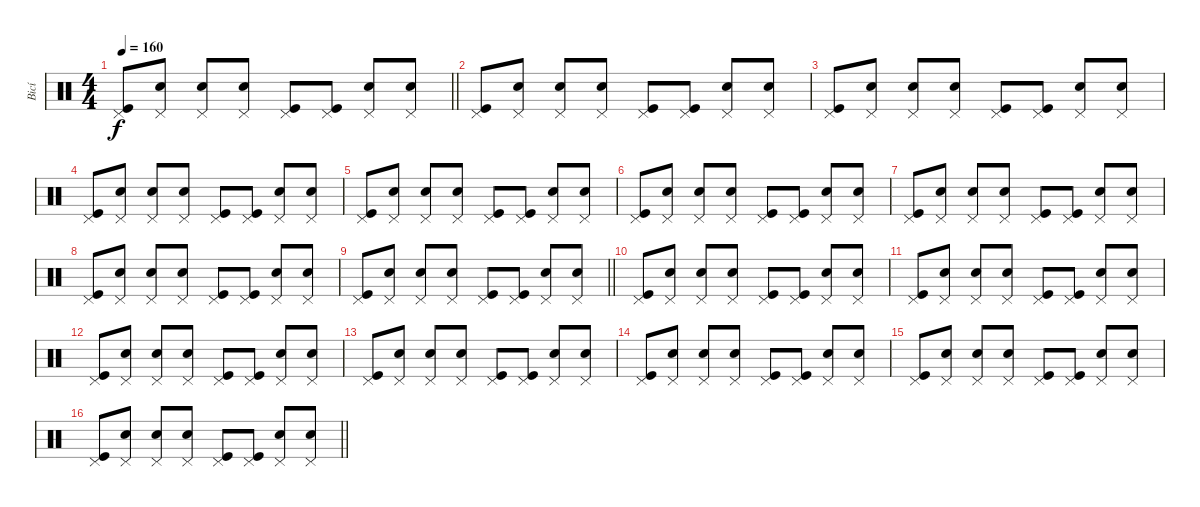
\track ("Bicí" "Bicí") {instrument percussion}
\staff {score}
\articulation defaults
\ts (4 4)
\tempo 160
\clef neutral
\barLineRight lightlight
\ks c
("Pedal Hi-Hat (hit)" "Kick (hit)").8{dy f} ("Pedal Hi-Hat (hit)" "Snare (hit)").8 ("Pedal Hi-Hat (hit)" "Electric Snare (hit)").8 ("Pedal Hi-Hat (hit)" "Snare (hit)").8 ("Pedal Hi-Hat (hit)" "Kick (hit)").8 ("Pedal Hi-Hat (hit)" "Kick (hit)").8 ("Pedal Hi-Hat (hit)" "Electric Snare (hit)").8 ("Pedal Hi-Hat (hit)" "Snare (hit)").8 |
("Pedal Hi-Hat (hit)" "Kick (hit)").8 ("Pedal Hi-Hat (hit)" "Snare (hit)").8 ("Pedal Hi-Hat (hit)" "Electric Snare (hit)").8 ("Pedal Hi-Hat (hit)" "Snare (hit)").8 ("Pedal Hi-Hat (hit)" "Kick (hit)").8 ("Pedal Hi-Hat (hit)" "Kick (hit)").8 ("Pedal Hi-Hat (hit)" "Electric Snare (hit)").8 ("Pedal Hi-Hat (hit)" "Snare (hit)").8 |
("Pedal Hi-Hat (hit)" "Kick (hit)").8 ("Pedal Hi-Hat (hit)" "Snare (hit)").8 ("Pedal Hi-Hat (hit)" "Electric Snare (hit)").8 ("Pedal Hi-Hat (hit)" "Snare (hit)").8 ("Pedal Hi-Hat (hit)" "Kick (hit)").8 ("Pedal Hi-Hat (hit)" "Kick (hit)").8 ("Pedal Hi-Hat (hit)" "Electric Snare (hit)").8 ("Pedal Hi-Hat (hit)" "Snare (hit)").8 |
("Pedal Hi-Hat (hit)" "Kick (hit)").8 ("Pedal Hi-Hat (hit)" "Snare (hit)").8 ("Pedal Hi-Hat (hit)" "Electric Snare (hit)").8 ("Pedal Hi-Hat (hit)" "Snare (hit)").8 ("Pedal Hi-Hat (hit)" "Kick (hit)").8 ("Pedal Hi-Hat (hit)" "Kick (hit)").8 ("Pedal Hi-Hat (hit)" "Electric Snare (hit)").8 ("Pedal Hi-Hat (hit)" "Snare (hit)").8 |
("Pedal Hi-Hat (hit)" "Kick (hit)").8 ("Pedal Hi-Hat (hit)" "Snare (hit)").8 ("Pedal Hi-Hat (hit)" "Electric Snare (hit)").8 ("Pedal Hi-Hat (hit)" "Snare (hit)").8 ("Pedal Hi-Hat (hit)" "Kick (hit)").8 ("Pedal Hi-Hat (hit)" "Kick (hit)").8 ("Pedal Hi-Hat (hit)" "Electric Snare (hit)").8 ("Pedal Hi-Hat (hit)" "Snare (hit)").8 |
("Pedal Hi-Hat (hit)" "Kick (hit)").8 ("Pedal Hi-Hat (hit)" "Snare (hit)").8 ("Pedal Hi-Hat (hit)" "Electric Snare (hit)").8 ("Pedal Hi-Hat (hit)" "Snare (hit)").8 ("Pedal Hi-Hat (hit)" "Kick (hit)").8 ("Pedal Hi-Hat (hit)" "Kick (hit)").8 ("Pedal Hi-Hat (hit)" "Electric Snare (hit)").8 ("Pedal Hi-Hat (hit)" "Snare (hit)").8 |
("Pedal Hi-Hat (hit)" "Kick (hit)").8 ("Pedal Hi-Hat (hit)" "Snare (hit)").8 ("Pedal Hi-Hat (hit)" "Electric Snare (hit)").8 ("Pedal Hi-Hat (hit)" "Snare (hit)").8 ("Pedal Hi-Hat (hit)" "Kick (hit)").8 ("Pedal Hi-Hat (hit)" "Kick (hit)").8 ("Pedal Hi-Hat (hit)" "Electric Snare (hit)").8 ("Pedal Hi-Hat (hit)" "Snare (hit)").8 |
("Pedal Hi-Hat (hit)" "Kick (hit)").8 ("Pedal Hi-Hat (hit)" "Snare (hit)").8 ("Pedal Hi-Hat (hit)" "Electric Snare (hit)").8 ("Pedal Hi-Hat (hit)" "Snare (hit)").8 ("Pedal Hi-Hat (hit)" "Kick (hit)").8 ("Pedal Hi-Hat (hit)" "Kick (hit)").8 ("Pedal Hi-Hat (hit)" "Electric Snare (hit)").8 ("Pedal Hi-Hat (hit)" "Snare (hit)").8 |
\barLineRight lightlight
("Pedal Hi-Hat (hit)" "Kick (hit)").8 ("Pedal Hi-Hat (hit)" "Snare (hit)").8 ("Pedal Hi-Hat (hit)" "Electric Snare (hit)").8 ("Pedal Hi-Hat (hit)" "Snare (hit)").8 ("Pedal Hi-Hat (hit)" "Kick (hit)").8 ("Pedal Hi-Hat (hit)" "Kick (hit)").8 ("Pedal Hi-Hat (hit)" "Electric Snare (hit)").8 ("Pedal Hi-Hat (hit)" "Snare (hit)").8 |
("Pedal Hi-Hat (hit)" "Kick (hit)").8 ("Pedal Hi-Hat (hit)" "Snare (hit)").8 ("Pedal Hi-Hat (hit)" "Electric Snare (hit)").8 ("Pedal Hi-Hat (hit)" "Snare (hit)").8 ("Pedal Hi-Hat (hit)" "Kick (hit)").8 ("Pedal Hi-Hat (hit)" "Kick (hit)").8 ("Pedal Hi-Hat (hit)" "Electric Snare (hit)").8 ("Pedal Hi-Hat (hit)" "Snare (hit)").8 |
("Pedal Hi-Hat (hit)" "Kick (hit)").8 ("Pedal Hi-Hat (hit)" "Snare (hit)").8 ("Pedal Hi-Hat (hit)" "Electric Snare (hit)").8 ("Pedal Hi-Hat (hit)" "Snare (hit)").8 ("Pedal Hi-Hat (hit)" "Kick (hit)").8 ("Pedal Hi-Hat (hit)" "Kick (hit)").8 ("Pedal Hi-Hat (hit)" "Electric Snare (hit)").8 ("Pedal Hi-Hat (hit)" "Snare (hit)").8 |
("Pedal Hi-Hat (hit)" "Kick (hit)").8 ("Pedal Hi-Hat (hit)" "Snare (hit)").8 ("Pedal Hi-Hat (hit)" "Electric Snare (hit)").8 ("Pedal Hi-Hat (hit)" "Snare (hit)").8 ("Pedal Hi-Hat (hit)" "Kick (hit)").8 ("Pedal Hi-Hat (hit)" "Kick (hit)").8 ("Pedal Hi-Hat (hit)" "Electric Snare (hit)").8 ("Pedal Hi-Hat (hit)" "Snare (hit)").8 |
("Pedal Hi-Hat (hit)" "Kick (hit)").8 ("Pedal Hi-Hat (hit)" "Snare (hit)").8 ("Pedal Hi-Hat (hit)" "Electric Snare (hit)").8 ("Pedal Hi-Hat (hit)" "Snare (hit)").8 ("Pedal Hi-Hat (hit)" "Kick (hit)").8 ("Pedal Hi-Hat (hit)" "Kick (hit)").8 ("Pedal Hi-Hat (hit)" "Electric Snare (hit)").8 ("Pedal Hi-Hat (hit)" "Snare (hit)").8 |
("Pedal Hi-Hat (hit)" "Kick (hit)").8 ("Pedal Hi-Hat (hit)" "Snare (hit)").8 ("Pedal Hi-Hat (hit)" "Electric Snare (hit)").8 ("Pedal Hi-Hat (hit)" "Snare (hit)").8 ("Pedal Hi-Hat (hit)" "Kick (hit)").8 ("Pedal Hi-Hat (hit)" "Kick (hit)").8 ("Pedal Hi-Hat (hit)" "Electric Snare (hit)").8 ("Pedal Hi-Hat (hit)" "Snare (hit)").8 |
("Pedal Hi-Hat (hit)" "Kick (hit)").8 ("Pedal Hi-Hat (hit)" "Snare (hit)").8 ("Pedal Hi-Hat (hit)" "Electric Snare (hit)").8 ("Pedal Hi-Hat (hit)" "Snare (hit)").8 ("Pedal Hi-Hat (hit)" "Kick (hit)").8 ("Pedal Hi-Hat (hit)" "Kick (hit)").8 ("Pedal Hi-Hat (hit)" "Electric Snare (hit)").8 ("Pedal Hi-Hat (hit)" "Snare (hit)").8 |
\barLineRight lightlight
("Pedal Hi-Hat (hit)" "Kick (hit)").8 ("Pedal Hi-Hat (hit)" "Snare (hit)").8 ("Pedal Hi-Hat (hit)" "Electric Snare (hit)").8 ("Pedal Hi-Hat (hit)" "Snare (hit)").8 ("Pedal Hi-Hat (hit)" "Kick (hit)").8 ("Pedal Hi-Hat (hit)" "Kick (hit)").8 ("Pedal Hi-Hat (hit)" "Electric Snare (hit)").8 ("Pedal Hi-Hat (hit)" "Snare (hit)").8
